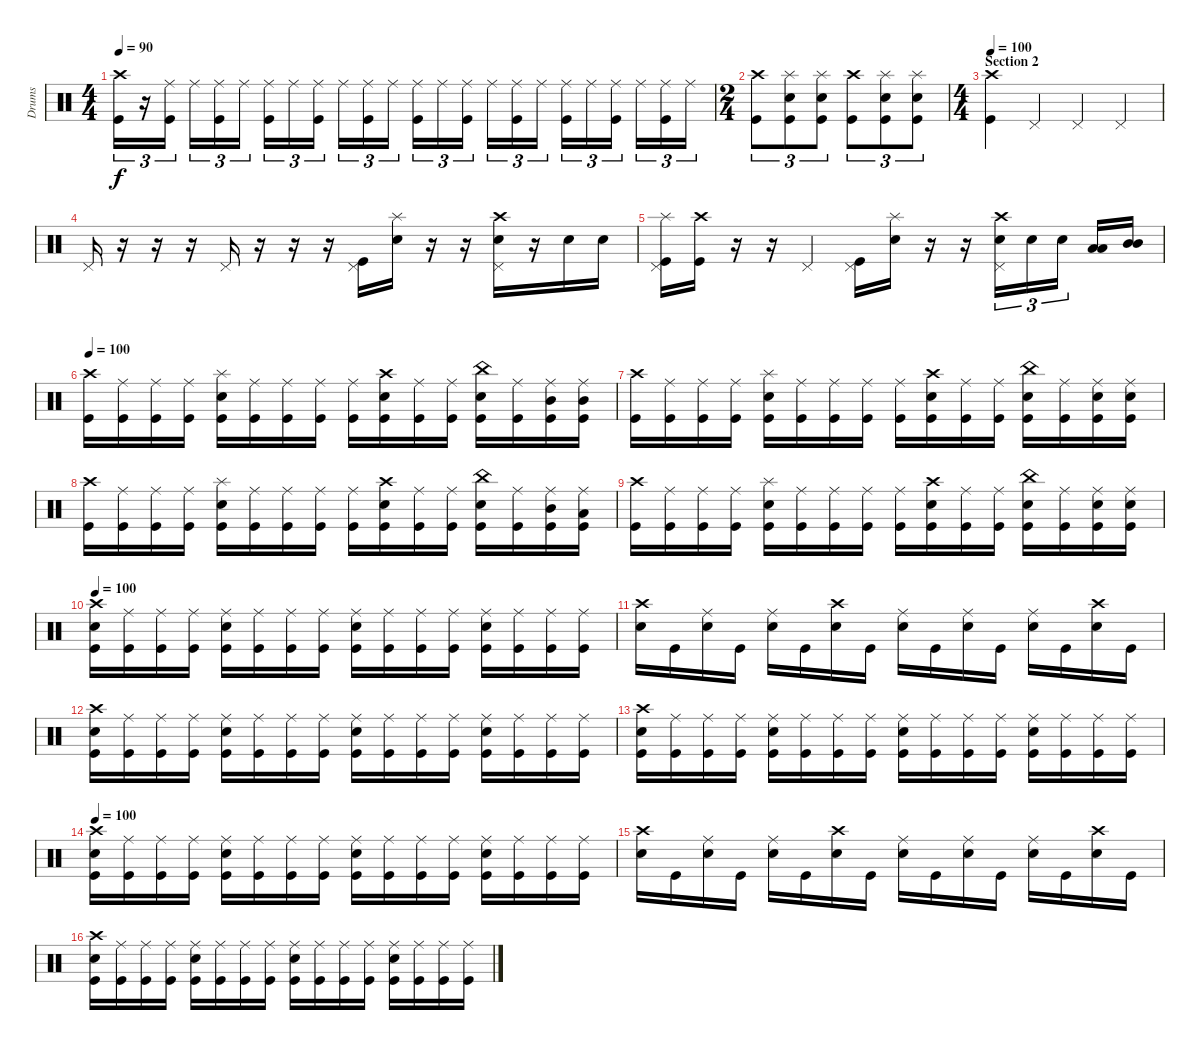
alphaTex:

\track ("Drums" "Drums") {instrument percussion}
\staff {score}
\articulation defaults
\ts (4 4)
\tempo 90
\clef neutral
\ks c
("Crash high (hit)" "Kick (hit)").16{tu (3 2) dy f} r.16{tu (3 2)} ("Ride (middle)" "Kick (hit)").16{tu (3 2)} "Ride (middle)".16{tu (3 2)} ("Ride (middle)" "Kick (hit)").16{tu (3 2)} "Ride (middle)".16{tu (3 2)} ("Ride (middle)" "Kick (hit)").16{tu (3 2)} "Ride (middle)".16{tu (3 2)} ("Ride (middle)" "Kick (hit)").16{tu (3 2)} "Ride (middle)".16{tu (3 2)} ("Ride (middle)" "Kick (hit)").16{tu (3 2)} "Ride (middle)".16{tu (3 2)} ("Ride (middle)" "Kick (hit)").16{tu (3 2)} "Ride (middle)".16{tu (3 2)} ("Ride (middle)" "Kick (hit)").16{tu (3 2)} "Ride (middle)".16{tu (3 2)} ("Ride (middle)" "Kick (hit)").16{tu (3 2)} "Ride (middle)".16{tu (3 2)} ("Ride (middle)" "Kick (hit)").16{tu (3 2)} "Ride (middle)".16{tu (3 2)} ("Ride (middle)" "Kick (hit)").16{tu (3 2)} "Ride (middle)".16{tu (3 2)} ("Ride (middle)" "Kick (hit)").16{tu (3 2)} "Ride (middle)".16{tu (3 2)} |
\ts (2 4)
("Crash high (hit)" "Kick (hit)").8{tu (3 2)} ("Splash (hit)" "Electric Snare (hit)" "Kick (hit)").8{tu (3 2)} ("Splash (hit)" "Electric Snare (hit)" "Kick (hit)").8{tu (3 2)} ("Crash high (hit)" "Kick (hit)").8{tu (3 2)} ("Splash (hit)" "Electric Snare (hit)" "Kick (hit)").8{tu (3 2)} ("Splash (hit)" "Electric Snare (hit)" "Kick (hit)").8{tu (3 2)} |
\ts (4 4)
\section ("" "Section 2")
\tempo 100
("Crash high (hit)" "Kick (hit)").4 "Pedal Hi-Hat (hit)".4 "Pedal Hi-Hat (hit)".4 "Pedal Hi-Hat (hit)".4 |
"Pedal Hi-Hat (hit)".16 r.16 r.16 r.16 "Pedal Hi-Hat (hit)".16 r.16 r.16 r.16 ("Pedal Hi-Hat (hit)" "Kick (hit)").16 ("Splash (hit)" "Electric Snare (hit)").16 r.16 r.16 ("Pedal Hi-Hat (hit)" "Crash high (hit)" "Electric Snare (hit)").16 r.16 "Electric Snare (hit)".16 "Electric Snare (hit)".16 |
("Pedal Hi-Hat (hit)" "Splash (hit)" "Kick (hit)").16 ("Crash high (hit)" "Kick (hit)").16 r.16 r.16 "Pedal Hi-Hat (hit)".4 ("Pedal Hi-Hat (hit)" "Kick (hit)").16 ("Splash (hit)" "Electric Snare (hit)").16 r.16 r.16 ("Pedal Hi-Hat (hit)" "Crash high (hit)" "Electric Snare (hit)").16{tu (3 2)} "Electric Snare (hit)".16{tu (3 2)} "Electric Snare (hit)".16{tu (3 2)} ("Low Tom (hit)" "Low Tom (hit)").16 ("Mid Tom (hit)" "Mid Tom (hit)").16 |
\tempo 100
("Crash high (hit)" "Kick (hit)").16 ("Ride (middle)" "Kick (hit)").16 ("Ride (middle)" "Kick (hit)").16 ("Ride (middle)" "Kick (hit)").16 ("Splash (hit)" "Electric Snare (hit)" "Kick (hit)").16 ("Ride (middle)" "Kick (hit)").16 ("Ride (middle)" "Kick (hit)").16 ("Ride (middle)" "Kick (hit)").16 ("Ride (middle)" "Kick (hit)").16 ("Crash high (hit)" "Electric Snare (hit)" "Kick (hit)").16 ("Ride (middle)" "Kick (hit)").16 ("Ride (middle)" "Kick (hit)").16 ("China (hit)" "Electric Snare (hit)" "Kick (hit)").16 ("Ride (middle)" "Kick (hit)").16 ("Ride (middle)" "Mid Tom (hit)" "Kick (hit)").16 ("Ride (middle)" "Mid Tom (hit)" "Kick (hit)").16 |
("Crash high (hit)" "Kick (hit)").16 ("Ride (middle)" "Kick (hit)").16 ("Ride (middle)" "Kick (hit)").16 ("Ride (middle)" "Kick (hit)").16 ("Splash (hit)" "Electric Snare (hit)" "Kick (hit)").16 ("Ride (middle)" "Kick (hit)").16 ("Ride (middle)" "Kick (hit)").16 ("Ride (middle)" "Kick (hit)").16 ("Ride (middle)" "Kick (hit)").16 ("Crash high (hit)" "Electric Snare (hit)" "Kick (hit)").16 ("Ride (middle)" "Kick (hit)").16 ("Ride (middle)" "Kick (hit)").16 ("China (hit)" "Electric Snare (hit)" "Kick (hit)").16 ("Ride (middle)" "Kick (hit)").16 ("Ride (middle)" "Electric Snare (hit)" "Kick (hit)").16 ("Ride (middle)" "Electric Snare (hit)" "Kick (hit)").16 |
("Crash high (hit)" "Kick (hit)").16 ("Ride (middle)" "Kick (hit)").16 ("Ride (middle)" "Kick (hit)").16 ("Ride (middle)" "Kick (hit)").16 ("Splash (hit)" "Electric Snare (hit)" "Kick (hit)").16 ("Ride (middle)" "Kick (hit)").16 ("Ride (middle)" "Kick (hit)").16 ("Ride (middle)" "Kick (hit)").16 ("Ride (middle)" "Kick (hit)").16 ("Crash high (hit)" "Electric Snare (hit)" "Kick (hit)").16 ("Ride (middle)" "Kick (hit)").16 ("Ride (middle)" "Kick (hit)").16 ("China (hit)" "Electric Snare (hit)" "Kick (hit)").16 ("Ride (middle)" "Kick (hit)").16 ("Ride (middle)" "Mid Tom (hit)" "Kick (hit)").16 ("Ride (middle)" "Low Tom (hit)" "Kick (hit)").16 |
("Crash high (hit)" "Kick (hit)").16 ("Ride (middle)" "Kick (hit)").16 ("Ride (middle)" "Kick (hit)").16 ("Ride (middle)" "Kick (hit)").16 ("Splash (hit)" "Electric Snare (hit)" "Kick (hit)").16 ("Ride (middle)" "Kick (hit)").16 ("Ride (middle)" "Kick (hit)").16 ("Ride (middle)" "Kick (hit)").16 ("Ride (middle)" "Kick (hit)").16 ("Crash high (hit)" "Electric Snare (hit)" "Kick (hit)").16 ("Ride (middle)" "Kick (hit)").16 ("Ride (middle)" "Kick (hit)").16 ("China (hit)" "Electric Snare (hit)" "Kick (hit)").16 ("Ride (middle)" "Kick (hit)").16 ("Ride (middle)" "Electric Snare (hit)" "Kick (hit)").16 ("Ride (middle)" "Electric Snare (hit)" "Kick (hit)").16 |
\tempo 100
("Crash high (hit)" "Electric Snare (hit)" "Kick (hit)").16 ("Ride (middle)" "Kick (hit)").16 ("Ride (middle)" "Kick (hit)").16 ("Ride (middle)" "Kick (hit)").16 ("Ride (middle)" "Electric Snare (hit)" "Kick (hit)").16 ("Ride (middle)" "Kick (hit)").16 ("Ride (middle)" "Kick (hit)").16 ("Ride (middle)" "Kick (hit)").16 ("Ride (middle)" "Electric Snare (hit)" "Kick (hit)").16 ("Ride (middle)" "Kick (hit)").16 ("Ride (middle)" "Kick (hit)").16 ("Ride (middle)" "Kick (hit)").16 ("Ride (middle)" "Electric Snare (hit)" "Kick (hit)").16 ("Ride (middle)" "Kick (hit)").16 ("Ride (middle)" "Kick (hit)").16 ("Ride (middle)" "Kick (hit)").16 |
("Crash high (hit)" "Electric Snare (hit)").16 "Kick (hit)".16 ("Ride (middle)" "Electric Snare (hit)").16 "Kick (hit)".16 ("Ride (middle)" "Electric Snare (hit)").16 "Kick (hit)".16 ("Crash high (hit)" "Electric Snare (hit)").16 "Kick (hit)".16 ("Ride (middle)" "Electric Snare (hit)").16 "Kick (hit)".16 ("Ride (middle)" "Electric Snare (hit)").16 "Kick (hit)".16 ("Ride (middle)" "Electric Snare (hit)").16 "Kick (hit)".16 ("Crash high (hit)" "Electric Snare (hit)").16 "Kick (hit)".16 |
("Crash high (hit)" "Electric Snare (hit)" "Kick (hit)").16 ("Ride (middle)" "Kick (hit)").16 ("Ride (middle)" "Kick (hit)").16 ("Ride (middle)" "Kick (hit)").16 ("Ride (middle)" "Electric Snare (hit)" "Kick (hit)").16 ("Ride (middle)" "Kick (hit)").16 ("Ride (middle)" "Kick (hit)").16 ("Ride (middle)" "Kick (hit)").16 ("Ride (middle)" "Electric Snare (hit)" "Kick (hit)").16 ("Ride (middle)" "Kick (hit)").16 ("Ride (middle)" "Kick (hit)").16 ("Ride (middle)" "Kick (hit)").16 ("Ride (middle)" "Electric Snare (hit)" "Kick (hit)").16 ("Ride (middle)" "Kick (hit)").16 ("Ride (middle)" "Kick (hit)").16 ("Ride (middle)" "Kick (hit)").16 |
("Crash high (hit)" "Electric Snare (hit)" "Kick (hit)").16 ("Ride (middle)" "Kick (hit)").16 ("Ride (middle)" "Kick (hit)").16 ("Ride (middle)" "Kick (hit)").16 ("Ride (middle)" "Electric Snare (hit)" "Kick (hit)").16 ("Ride (middle)" "Kick (hit)").16 ("Ride (middle)" "Kick (hit)").16 ("Ride (middle)" "Kick (hit)").16 ("Ride (middle)" "Electric Snare (hit)" "Kick (hit)").16 ("Ride (middle)" "Kick (hit)").16 ("Ride (middle)" "Kick (hit)").16 ("Ride (middle)" "Kick (hit)").16 ("Ride (middle)" "Electric Snare (hit)" "Kick (hit)").16 ("Ride (middle)" "Kick (hit)").16 ("Ride (middle)" "Kick (hit)").16 ("Ride (middle)" "Kick (hit)").16 |
\tempo 100
("Crash high (hit)" "Electric Snare (hit)" "Kick (hit)").16 ("Ride (middle)" "Kick (hit)").16 ("Ride (middle)" "Kick (hit)").16 ("Ride (middle)" "Kick (hit)").16 ("Ride (middle)" "Electric Snare (hit)" "Kick (hit)").16 ("Ride (middle)" "Kick (hit)").16 ("Ride (middle)" "Kick (hit)").16 ("Ride (middle)" "Kick (hit)").16 ("Ride (middle)" "Electric Snare (hit)" "Kick (hit)").16 ("Ride (middle)" "Kick (hit)").16 ("Ride (middle)" "Kick (hit)").16 ("Ride (middle)" "Kick (hit)").16 ("Ride (middle)" "Electric Snare (hit)" "Kick (hit)").16 ("Ride (middle)" "Kick (hit)").16 ("Ride (middle)" "Kick (hit)").16 ("Ride (middle)" "Kick (hit)").16 |
("Crash high (hit)" "Electric Snare (hit)").16 "Kick (hit)".16 ("Ride (middle)" "Electric Snare (hit)").16 "Kick (hit)".16 ("Ride (middle)" "Electric Snare (hit)").16 "Kick (hit)".16 ("Crash high (hit)" "Electric Snare (hit)").16 "Kick (hit)".16 ("Ride (middle)" "Electric Snare (hit)").16 "Kick (hit)".16 ("Ride (middle)" "Electric Snare (hit)").16 "Kick (hit)".16 ("Ride (middle)" "Electric Snare (hit)").16 "Kick (hit)".16 ("Crash high (hit)" "Electric Snare (hit)").16 "Kick (hit)".16 |
("Crash high (hit)" "Electric Snare (hit)" "Kick (hit)").16 ("Ride (middle)" "Kick (hit)").16 ("Ride (middle)" "Kick (hit)").16 ("Ride (middle)" "Kick (hit)").16 ("Ride (middle)" "Electric Snare (hit)" "Kick (hit)").16 ("Ride (middle)" "Kick (hit)").16 ("Ride (middle)" "Kick (hit)").16 ("Ride (middle)" "Kick (hit)").16 ("Ride (middle)" "Electric Snare (hit)" "Kick (hit)").16 ("Ride (middle)" "Kick (hit)").16 ("Ride (middle)" "Kick (hit)").16 ("Ride (middle)" "Kick (hit)").16 ("Ride (middle)" "Electric Snare (hit)" "Kick (hit)").16 ("Ride (middle)" "Kick (hit)").16 ("Ride (middle)" "Kick (hit)").16 ("Ride (middle)" "Kick (hit)").16
